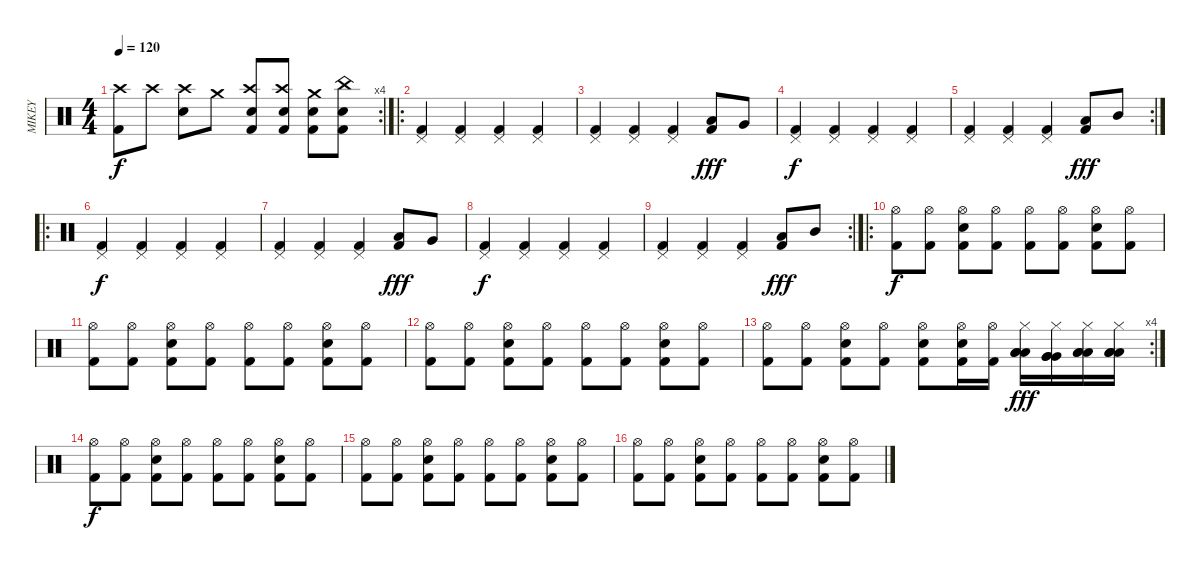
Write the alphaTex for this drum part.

\track ("MIKEY" "MIKEY") {instrument percussion}
\staff {score}
\articulation defaults
\rc 4
\ts (4 4)
\tempo 120
\clef neutral
\ks c
("Kick (hit) 2" "Crash high (hit)").8{dy f} "Crash high (hit)".8 ("Snare (hit) 2" "Crash high (hit)").8 "Crash medium (hit)".8 ("Kick (hit) 2" "Snare (hit) 2" "Crash high (hit)").8 ("Kick (hit) 2" "Snare (hit) 2" "Crash high (hit)").8 ("Kick (hit) 2" "Snare (hit) 2" "Crash medium (hit)").8 ("Kick (hit) 2" "Snare (hit) 2" "China (hit)").8 |
\ro
("Pedal Hi-Hat (hit)" "Kick (hit) 2").4 ("Pedal Hi-Hat (hit)" "Kick (hit) 2").4 ("Pedal Hi-Hat (hit)" "Kick (hit) 2").4 ("Pedal Hi-Hat (hit)" "Kick (hit) 2").4 |
("Pedal Hi-Hat (hit)" "Kick (hit) 2").4 ("Pedal Hi-Hat (hit)" "Kick (hit) 2").4 ("Pedal Hi-Hat (hit)" "Kick (hit) 2").4 ("Low Tom (hit)" "Kick (hit) 2").8{dy fff} "Very Low Tom (hit)".8 |
("Pedal Hi-Hat (hit)" "Kick (hit) 2").4{dy f} ("Pedal Hi-Hat (hit)" "Kick (hit) 2").4 ("Pedal Hi-Hat (hit)" "Kick (hit) 2").4 ("Pedal Hi-Hat (hit)" "Kick (hit) 2").4 |
\rc 2
("Pedal Hi-Hat (hit)" "Kick (hit) 2").4 ("Pedal Hi-Hat (hit)" "Kick (hit) 2").4 ("Pedal Hi-Hat (hit)" "Kick (hit) 2").4 ("Low Tom (hit)" "Kick (hit) 2").8{dy fff} "Mid Tom (hit)".8 |
\ro
("Pedal Hi-Hat (hit)" "Kick (hit) 2").4{dy f} ("Pedal Hi-Hat (hit)" "Kick (hit) 2").4 ("Pedal Hi-Hat (hit)" "Kick (hit) 2").4 ("Pedal Hi-Hat (hit)" "Kick (hit) 2").4 |
("Pedal Hi-Hat (hit)" "Kick (hit) 2").4 ("Pedal Hi-Hat (hit)" "Kick (hit) 2").4 ("Pedal Hi-Hat (hit)" "Kick (hit) 2").4 ("Low Tom (hit)" "Kick (hit) 2").8{dy fff} "Very Low Tom (hit)".8 |
("Pedal Hi-Hat (hit)" "Kick (hit) 2").4{dy f} ("Pedal Hi-Hat (hit)" "Kick (hit) 2").4 ("Pedal Hi-Hat (hit)" "Kick (hit) 2").4 ("Pedal Hi-Hat (hit)" "Kick (hit) 2").4 |
\rc 2
("Pedal Hi-Hat (hit)" "Kick (hit) 2").4 ("Pedal Hi-Hat (hit)" "Kick (hit) 2").4 ("Pedal Hi-Hat (hit)" "Kick (hit) 2").4 ("Low Tom (hit)" "Kick (hit) 2").8{dy fff} "Mid Tom (hit)".8 |
\ro
("Hi-Hat (open)" "Kick (hit) 2").8{dy f} ("Hi-Hat (open)" "Kick (hit) 2").8 ("Snare (hit) 2" "Hi-Hat (open)" "Kick (hit) 2").8 ("Hi-Hat (open)" "Kick (hit) 2").8 ("Hi-Hat (open)" "Kick (hit) 2").8 ("Hi-Hat (open)" "Kick (hit) 2").8 ("Snare (hit) 2" "Hi-Hat (open)" "Kick (hit) 2").8 ("Hi-Hat (open)" "Kick (hit) 2").8 |
("Hi-Hat (open)" "Kick (hit) 2").8 ("Hi-Hat (open)" "Kick (hit) 2").8 ("Snare (hit) 2" "Hi-Hat (open)" "Kick (hit) 2").8 ("Hi-Hat (open)" "Kick (hit) 2").8 ("Hi-Hat (open)" "Kick (hit) 2").8 ("Hi-Hat (open)" "Kick (hit) 2").8 ("Snare (hit) 2" "Hi-Hat (open)" "Kick (hit) 2").8 ("Hi-Hat (open)" "Kick (hit) 2").8 |
("Hi-Hat (open)" "Kick (hit) 2").8 ("Hi-Hat (open)" "Kick (hit) 2").8 ("Snare (hit) 2" "Hi-Hat (open)" "Kick (hit) 2").8 ("Hi-Hat (open)" "Kick (hit) 2").8 ("Hi-Hat (open)" "Kick (hit) 2").8 ("Hi-Hat (open)" "Kick (hit) 2").8 ("Snare (hit) 2" "Hi-Hat (open)" "Kick (hit) 2").8 ("Hi-Hat (open)" "Kick (hit) 2").8 |
\rc 4
("Hi-Hat (open)" "Kick (hit) 2").8 ("Hi-Hat (open)" "Kick (hit) 2").8 ("Snare (hit) 2" "Hi-Hat (open)" "Kick (hit) 2").8 ("Hi-Hat (open)" "Kick (hit) 2").8 ("Snare (hit) 2" "Hi-Hat (open)" "Kick (hit) 2").8 ("Snare (hit) 2" "Hi-Hat (open)" "Kick (hit) 2").16 ("Hi-Hat (open)" "Kick (hit) 2").16 ("Low Tom (hit)" "Low Tom (hit)" "Low Tom (hit)" "Hi-Hat (closed)").16{dy fff} ("Very Low Tom (hit)" "Very Low Tom (hit)" "Very Low Tom (hit)" "Hi-Hat (closed)").16 ("Low Tom (hit)" "Low Tom (hit)" "Low Tom (hit)" "Hi-Hat (closed)").16 ("Low Floor Tom (hit)" "Low Floor Tom (hit)" "Low Floor Tom (hit)" "Hi-Hat (closed)").16 |
("Hi-Hat (open)" "Kick (hit) 2").8{dy f} ("Hi-Hat (open)" "Kick (hit) 2").8 ("Snare (hit) 2" "Hi-Hat (open)" "Kick (hit) 2").8 ("Hi-Hat (open)" "Kick (hit) 2").8 ("Hi-Hat (open)" "Kick (hit) 2").8 ("Hi-Hat (open)" "Kick (hit) 2").8 ("Snare (hit) 2" "Hi-Hat (open)" "Kick (hit) 2").8 ("Hi-Hat (open)" "Kick (hit) 2").8 |
("Hi-Hat (open)" "Kick (hit) 2").8 ("Hi-Hat (open)" "Kick (hit) 2").8 ("Snare (hit) 2" "Hi-Hat (open)" "Kick (hit) 2").8 ("Hi-Hat (open)" "Kick (hit) 2").8 ("Hi-Hat (open)" "Kick (hit) 2").8 ("Hi-Hat (open)" "Kick (hit) 2").8 ("Snare (hit) 2" "Hi-Hat (open)" "Kick (hit) 2").8 ("Hi-Hat (open)" "Kick (hit) 2").8 |
("Hi-Hat (open)" "Kick (hit) 2").8 ("Hi-Hat (open)" "Kick (hit) 2").8 ("Snare (hit) 2" "Hi-Hat (open)" "Kick (hit) 2").8 ("Hi-Hat (open)" "Kick (hit) 2").8 ("Hi-Hat (open)" "Kick (hit) 2").8 ("Hi-Hat (open)" "Kick (hit) 2").8 ("Snare (hit) 2" "Hi-Hat (open)" "Kick (hit) 2").8 ("Hi-Hat (open)" "Kick (hit) 2").8
